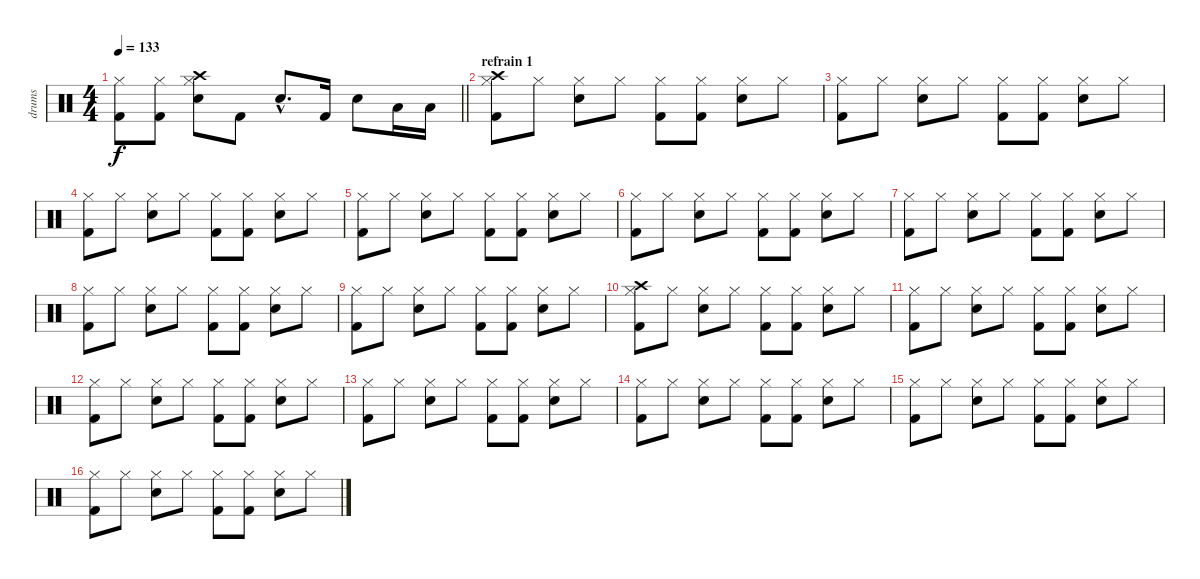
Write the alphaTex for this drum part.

\track ("drums" "drums") {instrument percussion}
\staff {score}
\articulation defaults
\ts (4 4)
\tempo 133
\clef neutral
\barLineRight lightlight
\ks c
("Hi-Hat (closed)" "Kick (hit) 2").8{dy f} ("Hi-Hat (closed)" "Kick (hit) 2").8 ("Crash high (hit)" "Hi-Hat (closed)" "Snare (hit) 2").8 "Kick (hit) 2".8 "Snare (hit) 2"{hac}.8{d} "Kick (hit) 2".16 "Snare (hit) 2".8 "Low Tom (hit)".16 "Low Tom (hit)".16 |
\section ("" "refrain 1")
("Crash high (hit)" "Hi-Hat (closed)" "Kick (hit) 2").8 "Hi-Hat (closed)".8 ("Hi-Hat (closed)" "Snare (hit) 2").8 "Hi-Hat (closed)".8 ("Hi-Hat (closed)" "Kick (hit) 2").8 ("Hi-Hat (closed)" "Kick (hit) 2").8 ("Hi-Hat (closed)" "Snare (hit) 2").8 "Hi-Hat (closed)".8 |
("Hi-Hat (closed)" "Kick (hit) 2").8 "Hi-Hat (closed)".8 ("Hi-Hat (closed)" "Snare (hit) 2").8 "Hi-Hat (closed)".8 ("Hi-Hat (closed)" "Kick (hit) 2").8 ("Hi-Hat (closed)" "Kick (hit) 2").8 ("Hi-Hat (closed)" "Snare (hit) 2").8 "Hi-Hat (closed)".8 |
("Hi-Hat (closed)" "Kick (hit) 2").8 "Hi-Hat (closed)".8 ("Hi-Hat (closed)" "Snare (hit) 2").8 "Hi-Hat (closed)".8 ("Hi-Hat (closed)" "Kick (hit) 2").8 ("Hi-Hat (closed)" "Kick (hit) 2").8 ("Hi-Hat (closed)" "Snare (hit) 2").8 "Hi-Hat (closed)".8 |
("Hi-Hat (closed)" "Kick (hit) 2").8 "Hi-Hat (closed)".8 ("Hi-Hat (closed)" "Snare (hit) 2").8 "Hi-Hat (closed)".8 ("Hi-Hat (closed)" "Kick (hit) 2").8 ("Hi-Hat (closed)" "Kick (hit) 2").8 ("Hi-Hat (closed)" "Snare (hit) 2").8 "Hi-Hat (closed)".8 |
("Hi-Hat (closed)" "Kick (hit) 2").8 "Hi-Hat (closed)".8 ("Hi-Hat (closed)" "Snare (hit) 2").8 "Hi-Hat (closed)".8 ("Hi-Hat (closed)" "Kick (hit) 2").8 ("Hi-Hat (closed)" "Kick (hit) 2").8 ("Hi-Hat (closed)" "Snare (hit) 2").8 "Hi-Hat (closed)".8 |
("Hi-Hat (closed)" "Kick (hit) 2").8 "Hi-Hat (closed)".8 ("Hi-Hat (closed)" "Snare (hit) 2").8 "Hi-Hat (closed)".8 ("Hi-Hat (closed)" "Kick (hit) 2").8 ("Hi-Hat (closed)" "Kick (hit) 2").8 ("Hi-Hat (closed)" "Snare (hit) 2").8 "Hi-Hat (closed)".8 |
("Hi-Hat (closed)" "Kick (hit) 2").8 "Hi-Hat (closed)".8 ("Hi-Hat (closed)" "Snare (hit) 2").8 "Hi-Hat (closed)".8 ("Hi-Hat (closed)" "Kick (hit) 2").8 ("Hi-Hat (closed)" "Kick (hit) 2").8 ("Hi-Hat (closed)" "Snare (hit) 2").8 "Hi-Hat (closed)".8 |
("Hi-Hat (closed)" "Kick (hit) 2").8 "Hi-Hat (closed)".8 ("Hi-Hat (closed)" "Snare (hit) 2").8 "Hi-Hat (closed)".8 ("Hi-Hat (closed)" "Kick (hit) 2").8 ("Hi-Hat (closed)" "Kick (hit) 2").8 ("Hi-Hat (closed)" "Snare (hit) 2").8 "Hi-Hat (closed)".8 |
("Crash high (hit)" "Hi-Hat (closed)" "Kick (hit) 2").8 "Hi-Hat (closed)".8 ("Hi-Hat (closed)" "Snare (hit) 2").8 "Hi-Hat (closed)".8 ("Hi-Hat (closed)" "Kick (hit) 2").8 ("Hi-Hat (closed)" "Kick (hit) 2").8 ("Hi-Hat (closed)" "Snare (hit) 2").8 "Hi-Hat (closed)".8 |
("Hi-Hat (closed)" "Kick (hit) 2").8 "Hi-Hat (closed)".8 ("Hi-Hat (closed)" "Snare (hit) 2").8 "Hi-Hat (closed)".8 ("Hi-Hat (closed)" "Kick (hit) 2").8 ("Hi-Hat (closed)" "Kick (hit) 2").8 ("Hi-Hat (closed)" "Snare (hit) 2").8 "Hi-Hat (closed)".8 |
("Hi-Hat (closed)" "Kick (hit) 2").8 "Hi-Hat (closed)".8 ("Hi-Hat (closed)" "Snare (hit) 2").8 "Hi-Hat (closed)".8 ("Hi-Hat (closed)" "Kick (hit) 2").8 ("Hi-Hat (closed)" "Kick (hit) 2").8 ("Hi-Hat (closed)" "Snare (hit) 2").8 "Hi-Hat (closed)".8 |
("Hi-Hat (closed)" "Kick (hit) 2").8 "Hi-Hat (closed)".8 ("Hi-Hat (closed)" "Snare (hit) 2").8 "Hi-Hat (closed)".8 ("Hi-Hat (closed)" "Kick (hit) 2").8 ("Hi-Hat (closed)" "Kick (hit) 2").8 ("Hi-Hat (closed)" "Snare (hit) 2").8 "Hi-Hat (closed)".8 |
("Hi-Hat (closed)" "Kick (hit) 2").8 "Hi-Hat (closed)".8 ("Hi-Hat (closed)" "Snare (hit) 2").8 "Hi-Hat (closed)".8 ("Hi-Hat (closed)" "Kick (hit) 2").8 ("Hi-Hat (closed)" "Kick (hit) 2").8 ("Hi-Hat (closed)" "Snare (hit) 2").8 "Hi-Hat (closed)".8 |
("Hi-Hat (closed)" "Kick (hit) 2").8 "Hi-Hat (closed)".8 ("Hi-Hat (closed)" "Snare (hit) 2").8 "Hi-Hat (closed)".8 ("Hi-Hat (closed)" "Kick (hit) 2").8 ("Hi-Hat (closed)" "Kick (hit) 2").8 ("Hi-Hat (closed)" "Snare (hit) 2").8 "Hi-Hat (closed)".8 |
("Hi-Hat (closed)" "Kick (hit) 2").8 "Hi-Hat (closed)".8 ("Hi-Hat (closed)" "Snare (hit) 2").8 "Hi-Hat (closed)".8 ("Hi-Hat (closed)" "Kick (hit) 2").8 ("Hi-Hat (closed)" "Kick (hit) 2").8 ("Hi-Hat (closed)" "Snare (hit) 2").8 "Hi-Hat (closed)".8
